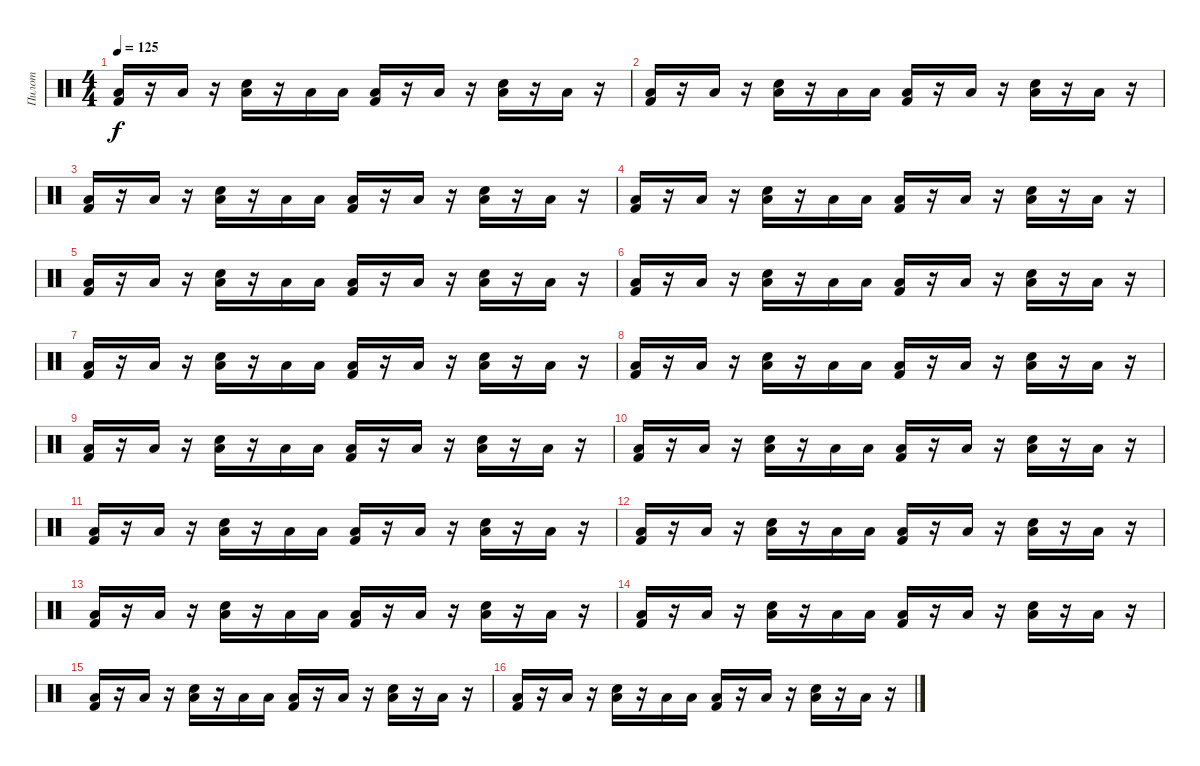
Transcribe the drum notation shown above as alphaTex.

\track ("Пилот" "Пилот") {instrument percussion}
\staff {score}
\articulation defaults
\ts (4 4)
\tempo 125
\clef neutral
\ks c
("Low Tom (hit)" "Kick (hit) 2").16{dy f} r.16 "Low Floor Tom (hit)".16 r.16 ("Low Floor Tom (hit)" "Electric Snare (hit)").16 r.16 "Low Floor Tom (hit)".16 "Low Tom (hit)".16 ("Low Floor Tom (hit)" "Kick (hit) 2").16 r.16 "Low Floor Tom (hit)".16 r.16 ("Low Floor Tom (hit)" "Electric Snare (hit)").16 r.16 "Low Floor Tom (hit)".16 r.16 |
("Low Tom (hit)" "Kick (hit) 2").16 r.16 "Low Floor Tom (hit)".16 r.16 ("Low Floor Tom (hit)" "Electric Snare (hit)").16 r.16 "Low Floor Tom (hit)".16 "Low Tom (hit)".16 ("Low Floor Tom (hit)" "Kick (hit) 2").16 r.16 "Low Floor Tom (hit)".16 r.16 ("Low Floor Tom (hit)" "Electric Snare (hit)").16 r.16 "Low Floor Tom (hit)".16 r.16 |
("Low Tom (hit)" "Kick (hit) 2").16 r.16 "Low Floor Tom (hit)".16 r.16 ("Low Floor Tom (hit)" "Electric Snare (hit)").16 r.16 "Low Floor Tom (hit)".16 "Low Tom (hit)".16 ("Low Floor Tom (hit)" "Kick (hit) 2").16 r.16 "Low Floor Tom (hit)".16 r.16 ("Low Floor Tom (hit)" "Electric Snare (hit)").16 r.16 "Low Floor Tom (hit)".16 r.16 |
("Low Tom (hit)" "Kick (hit) 2").16 r.16 "Low Floor Tom (hit)".16 r.16 ("Low Floor Tom (hit)" "Electric Snare (hit)").16 r.16 "Low Floor Tom (hit)".16 "Low Tom (hit)".16 ("Low Floor Tom (hit)" "Kick (hit) 2").16 r.16 "Low Floor Tom (hit)".16 r.16 ("Low Floor Tom (hit)" "Electric Snare (hit)").16 r.16 "Low Floor Tom (hit)".16 r.16 |
("Low Tom (hit)" "Kick (hit) 2").16 r.16 "Low Floor Tom (hit)".16 r.16 ("Low Floor Tom (hit)" "Electric Snare (hit)").16 r.16 "Low Floor Tom (hit)".16 "Low Tom (hit)".16 ("Low Floor Tom (hit)" "Kick (hit) 2").16 r.16 "Low Floor Tom (hit)".16 r.16 ("Low Floor Tom (hit)" "Electric Snare (hit)").16 r.16 "Low Floor Tom (hit)".16 r.16 |
("Low Tom (hit)" "Kick (hit) 2").16 r.16 "Low Floor Tom (hit)".16 r.16 ("Low Floor Tom (hit)" "Electric Snare (hit)").16 r.16 "Low Floor Tom (hit)".16 "Low Tom (hit)".16 ("Low Floor Tom (hit)" "Kick (hit) 2").16 r.16 "Low Floor Tom (hit)".16 r.16 ("Low Floor Tom (hit)" "Electric Snare (hit)").16 r.16 "Low Floor Tom (hit)".16 r.16 |
("Low Tom (hit)" "Kick (hit) 2").16 r.16 "Low Floor Tom (hit)".16 r.16 ("Low Floor Tom (hit)" "Electric Snare (hit)").16 r.16 "Low Floor Tom (hit)".16 "Low Tom (hit)".16 ("Low Floor Tom (hit)" "Kick (hit) 2").16 r.16 "Low Floor Tom (hit)".16 r.16 ("Low Floor Tom (hit)" "Electric Snare (hit)").16 r.16 "Low Floor Tom (hit)".16 r.16 |
("Low Tom (hit)" "Kick (hit) 2").16 r.16 "Low Floor Tom (hit)".16 r.16 ("Low Floor Tom (hit)" "Electric Snare (hit)").16 r.16 "Low Floor Tom (hit)".16 "Low Tom (hit)".16 ("Low Floor Tom (hit)" "Kick (hit) 2").16 r.16 "Low Floor Tom (hit)".16 r.16 ("Low Floor Tom (hit)" "Electric Snare (hit)").16 r.16 "Low Floor Tom (hit)".16 r.16 |
("Low Tom (hit)" "Kick (hit) 2").16 r.16 "Low Floor Tom (hit)".16 r.16 ("Low Floor Tom (hit)" "Electric Snare (hit)").16 r.16 "Low Floor Tom (hit)".16 "Low Tom (hit)".16 ("Low Floor Tom (hit)" "Kick (hit) 2").16 r.16 "Low Floor Tom (hit)".16 r.16 ("Low Floor Tom (hit)" "Electric Snare (hit)").16 r.16 "Low Floor Tom (hit)".16 r.16 |
("Low Tom (hit)" "Kick (hit) 2").16 r.16 "Low Floor Tom (hit)".16 r.16 ("Low Floor Tom (hit)" "Electric Snare (hit)").16 r.16 "Low Floor Tom (hit)".16 "Low Tom (hit)".16 ("Low Floor Tom (hit)" "Kick (hit) 2").16 r.16 "Low Floor Tom (hit)".16 r.16 ("Low Floor Tom (hit)" "Electric Snare (hit)").16 r.16 "Low Floor Tom (hit)".16 r.16 |
("Low Tom (hit)" "Kick (hit) 2").16 r.16 "Low Floor Tom (hit)".16 r.16 ("Low Floor Tom (hit)" "Electric Snare (hit)").16 r.16 "Low Floor Tom (hit)".16 "Low Tom (hit)".16 ("Low Floor Tom (hit)" "Kick (hit) 2").16 r.16 "Low Floor Tom (hit)".16 r.16 ("Low Floor Tom (hit)" "Electric Snare (hit)").16 r.16 "Low Floor Tom (hit)".16 r.16 |
("Low Tom (hit)" "Kick (hit) 2").16 r.16 "Low Floor Tom (hit)".16 r.16 ("Low Floor Tom (hit)" "Electric Snare (hit)").16 r.16 "Low Floor Tom (hit)".16 "Low Tom (hit)".16 ("Low Floor Tom (hit)" "Kick (hit) 2").16 r.16 "Low Floor Tom (hit)".16 r.16 ("Low Floor Tom (hit)" "Electric Snare (hit)").16 r.16 "Low Floor Tom (hit)".16 r.16 |
("Low Tom (hit)" "Kick (hit) 2").16 r.16 "Low Floor Tom (hit)".16 r.16 ("Low Floor Tom (hit)" "Electric Snare (hit)").16 r.16 "Low Floor Tom (hit)".16 "Low Tom (hit)".16 ("Low Floor Tom (hit)" "Kick (hit) 2").16 r.16 "Low Floor Tom (hit)".16 r.16 ("Low Floor Tom (hit)" "Electric Snare (hit)").16 r.16 "Low Floor Tom (hit)".16 r.16 |
("Low Tom (hit)" "Kick (hit) 2").16 r.16 "Low Floor Tom (hit)".16 r.16 ("Low Floor Tom (hit)" "Electric Snare (hit)").16 r.16 "Low Floor Tom (hit)".16 "Low Tom (hit)".16 ("Low Floor Tom (hit)" "Kick (hit) 2").16 r.16 "Low Floor Tom (hit)".16 r.16 ("Low Floor Tom (hit)" "Electric Snare (hit)").16 r.16 "Low Floor Tom (hit)".16 r.16 |
("Low Tom (hit)" "Kick (hit) 2").16 r.16 "Low Floor Tom (hit)".16 r.16 ("Low Floor Tom (hit)" "Electric Snare (hit)").16 r.16 "Low Floor Tom (hit)".16 "Low Tom (hit)".16 ("Low Floor Tom (hit)" "Kick (hit) 2").16 r.16 "Low Floor Tom (hit)".16 r.16 ("Low Floor Tom (hit)" "Electric Snare (hit)").16 r.16 "Low Floor Tom (hit)".16 r.16 |
("Low Tom (hit)" "Kick (hit) 2").16 r.16 "Low Floor Tom (hit)".16 r.16 ("Low Floor Tom (hit)" "Electric Snare (hit)").16 r.16 "Low Floor Tom (hit)".16 "Low Tom (hit)".16 ("Low Floor Tom (hit)" "Kick (hit) 2").16 r.16 "Low Floor Tom (hit)".16 r.16 ("Low Floor Tom (hit)" "Electric Snare (hit)").16 r.16 "Low Floor Tom (hit)".16 r.16
